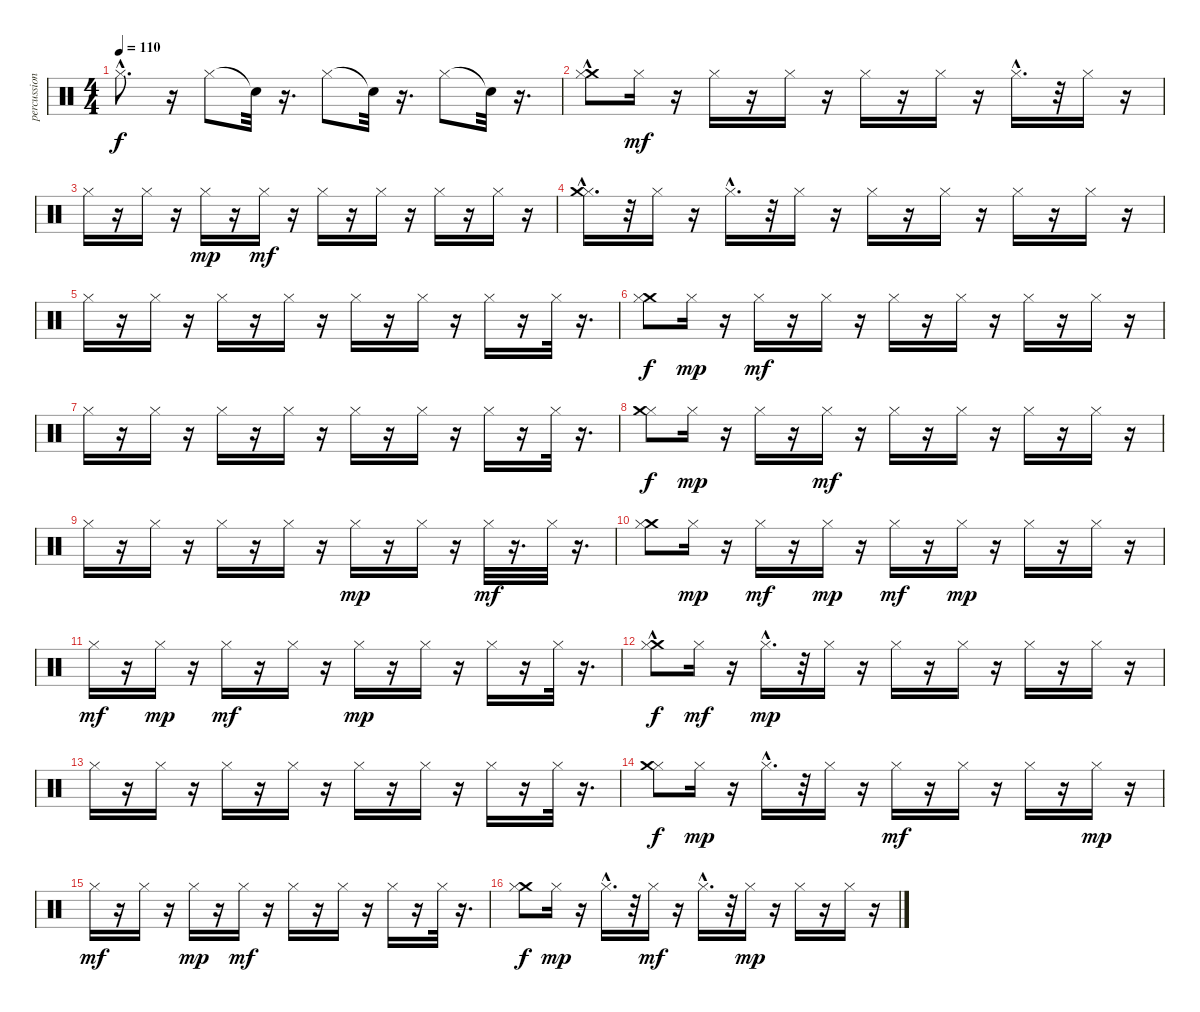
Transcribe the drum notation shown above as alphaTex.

\track ("percussions 2" "percussion") {instrument percussion}
\staff {score}
\articulation defaults
\ts (4 4)
\tempo 110
\clef neutral
\ks c "Hi-Hat (closed)"{hac}.8{d dy f}
r.16 "Hi-Hat (closed)".8 "Snare (hit)"{t}.32 r.16{d} "Hi-Hat (closed)".8 "Snare (hit)"{t}.32 r.16{d} "Hi-Hat (closed)".8 "Snare (hit)"{t}.32 r.16{d} |
("Crash medium (hit)" "Hi-Hat (closed)"{hac}).8 "Hi-Hat (closed)".16{dy mf} r.16 "Hi-Hat (closed)".16 r.16 "Hi-Hat (closed)".16 r.16 "Hi-Hat (closed)".16 r.16 "Hi-Hat (closed)".16 r.16 "Hi-Hat (closed)"{hac}.16{d} r.32 "Hi-Hat (closed)".16 r.16 |
"Hi-Hat (closed)".16 r.16 "Hi-Hat (closed)".16 r.16 "Hi-Hat (closed)".16{dy mp} r.16 "Hi-Hat (closed)".16{dy mf} r.16 "Hi-Hat (closed)".16 r.16 "Hi-Hat (closed)".16 r.16 "Hi-Hat (closed)".16 r.16 "Hi-Hat (closed)".16 r.16 |
("Hi-Hat (closed)" "Crash medium (hit)"{hac}).16{d} r.32 "Hi-Hat (closed)".16 r.16 "Hi-Hat (closed)"{hac}.16{d} r.32 "Hi-Hat (closed)".16 r.16 "Hi-Hat (closed)".16 r.16 "Hi-Hat (closed)".16 r.16 "Hi-Hat (closed)".16 r.16 "Hi-Hat (closed)".16 r.16 |
"Hi-Hat (closed)".16 r.16 "Hi-Hat (closed)".16 r.16 "Hi-Hat (closed)".16 r.16 "Hi-Hat (closed)".16 r.16 "Hi-Hat (closed)".16 r.16 "Hi-Hat (closed)".16 r.16 "Hi-Hat (closed)".16 r.16 "Hi-Hat (closed)".32 r.16{d} |
("Crash medium (hit)" "Hi-Hat (closed)").8{dy f} "Hi-Hat (closed)".16{dy mp} r.16 "Hi-Hat (closed)".16{dy mf} r.16 "Hi-Hat (closed)".16 r.16 "Hi-Hat (closed)".16 r.16 "Hi-Hat (closed)".16 r.16 "Hi-Hat (closed)".16 r.16 "Hi-Hat (closed)".16 r.16 |
"Hi-Hat (closed)".16 r.16 "Hi-Hat (closed)".16 r.16 "Hi-Hat (closed)".16 r.16 "Hi-Hat (closed)".16 r.16 "Hi-Hat (closed)".16 r.16 "Hi-Hat (closed)".16 r.16 "Hi-Hat (closed)".16 r.16 "Hi-Hat (closed)".32 r.16{d} |
("Hi-Hat (closed)" "Crash medium (hit)").8{dy f} "Hi-Hat (closed)".16{dy mp} r.16 "Hi-Hat (closed)".16 r.16 "Hi-Hat (closed)".16{dy mf} r.16 "Hi-Hat (closed)".16 r.16 "Hi-Hat (closed)".16 r.16 "Hi-Hat (closed)".16 r.16 "Hi-Hat (closed)".16 r.16 |
"Hi-Hat (closed)".16 r.16 "Hi-Hat (closed)".16 r.16 "Hi-Hat (closed)".16 r.16 "Hi-Hat (closed)".16 r.16 "Hi-Hat (closed)".16{dy mp} r.16 "Hi-Hat (closed)".16 r.16 "Hi-Hat (closed)".32{dy mf} r.16{d} "Hi-Hat (closed)".32 r.16{d} |
("Crash medium (hit)" "Hi-Hat (closed)").8 "Hi-Hat (closed)".16{dy mp} r.16 "Hi-Hat (closed)".16{dy mf} r.16 "Hi-Hat (closed)".16{dy mp} r.16 "Hi-Hat (closed)".16{dy mf} r.16 "Hi-Hat (closed)".16{dy mp} r.16 "Hi-Hat (closed)".16 r.16 "Hi-Hat (closed)".16 r.16 |
"Hi-Hat (closed)".16{dy mf} r.16 "Hi-Hat (closed)".16{dy mp} r.16 "Hi-Hat (closed)".16{dy mf} r.16 "Hi-Hat (closed)".16 r.16 "Hi-Hat (closed)".16{dy mp} r.16 "Hi-Hat (closed)".16 r.16 "Hi-Hat (closed)".16 r.16 "Hi-Hat (closed)".32 r.16{d} |
("Crash medium (hit)" "Hi-Hat (closed)"{hac}).8{dy f} "Hi-Hat (closed)".16{dy mf} r.16 "Hi-Hat (closed)"{hac}.16{d dy mp} r.32 "Hi-Hat (closed)".16 r.16 "Hi-Hat (closed)".16 r.16 "Hi-Hat (closed)".16 r.16 "Hi-Hat (closed)".16 r.16 "Hi-Hat (closed)".16 r.16 |
"Hi-Hat (closed)".16 r.16 "Hi-Hat (closed)".16 r.16 "Hi-Hat (closed)".16 r.16 "Hi-Hat (closed)".16 r.16 "Hi-Hat (closed)".16 r.16 "Hi-Hat (closed)".16 r.16 "Hi-Hat (closed)".16 r.16 "Hi-Hat (closed)".32 r.16{d} |
("Hi-Hat (closed)" "Crash medium (hit)").8{dy f} "Hi-Hat (closed)".16{dy mp} r.16 "Hi-Hat (closed)"{hac}.16{d} r.32 "Hi-Hat (closed)".16 r.16 "Hi-Hat (closed)".16{dy mf} r.16 "Hi-Hat (closed)".16 r.16 "Hi-Hat (closed)".16 r.16 "Hi-Hat (closed)".16{dy mp} r.16 |
"Hi-Hat (closed)".16{dy mf} r.16 "Hi-Hat (closed)".16 r.16 "Hi-Hat (closed)".16{dy mp} r.16 "Hi-Hat (closed)".16{dy mf} r.16 "Hi-Hat (closed)".16 r.16 "Hi-Hat (closed)".16 r.16 "Hi-Hat (closed)".16 r.16 "Hi-Hat (closed)".32 r.16{d} |
("Crash medium (hit)" "Hi-Hat (closed)").8{dy f} "Hi-Hat (closed)".16{dy mp} r.16 "Hi-Hat (closed)"{hac}.16{d} r.32 "Hi-Hat (closed)".16{dy mf} r.16 "Hi-Hat (closed)"{hac}.16{d} r.32 "Hi-Hat (closed)".16{dy mp} r.16 "Hi-Hat (closed)".16 r.16 "Hi-Hat (closed)".16 r.16
